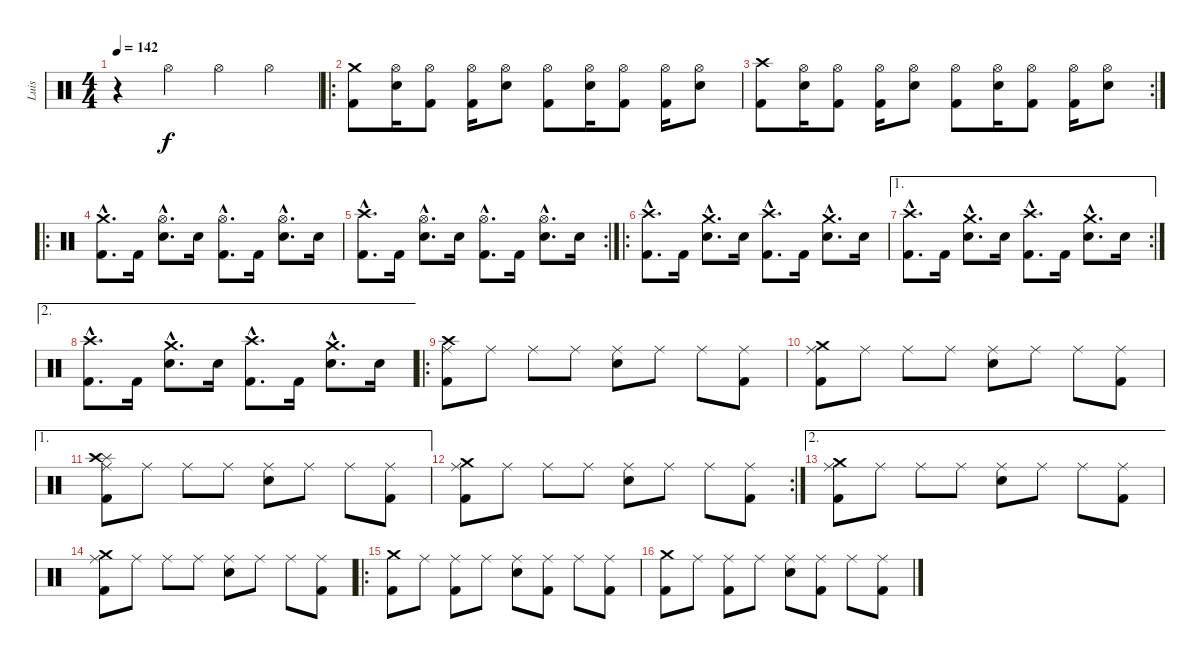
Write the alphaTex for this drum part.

\track ("Luis" "Luis") {instrument percussion}
\staff {score}
\articulation defaults
\ts (4 4)
\tempo 142
\clef neutral
\ks c
r.4{dy f} "Hi-Hat (open)".4 "Hi-Hat (open)".4 "Hi-Hat (open)".4 |
\ro
("Crash medium (hit)" "Kick (hit) 2").8 ("Hi-Hat (open)" "Electric Snare (hit)").16 ("Hi-Hat (open)" "Kick (hit) 2").8 ("Hi-Hat (open)" "Kick (hit) 2").16 ("Hi-Hat (open)" "Electric Snare (hit)").8 ("Hi-Hat (open)" "Kick (hit) 2").8 ("Hi-Hat (open)" "Electric Snare (hit)").16 ("Hi-Hat (open)" "Kick (hit) 2").8 ("Hi-Hat (open)" "Kick (hit) 2").16 ("Hi-Hat (open)" "Electric Snare (hit)").8 |
\rc 2
("Crash high (hit)" "Kick (hit) 2").8 ("Hi-Hat (open)" "Electric Snare (hit)").16 ("Hi-Hat (open)" "Kick (hit) 2").8 ("Hi-Hat (open)" "Kick (hit) 2").16 ("Hi-Hat (open)" "Electric Snare (hit)").8 ("Hi-Hat (open)" "Kick (hit) 2").8 ("Hi-Hat (open)" "Electric Snare (hit)").16 ("Hi-Hat (open)" "Kick (hit) 2").8 ("Hi-Hat (open)" "Kick (hit) 2").16 ("Hi-Hat (open)" "Electric Snare (hit)").8 |
\ro
("Crash medium (hit)"{hac} "Kick (hit) 2"{hac}).8{d} "Kick (hit) 2".16 ("Hi-Hat (open)"{hac} "Electric Snare (hit)"{hac}).8{d} "Electric Snare (hit)".16 ("Hi-Hat (open)"{hac} "Kick (hit) 2"{hac}).8{d} "Kick (hit) 2".16 ("Hi-Hat (open)"{hac} "Electric Snare (hit)"{hac}).8{d} "Electric Snare (hit)".16 |
\rc 2
("Crash high (hit)"{hac} "Kick (hit) 2"{hac}).8{d} "Kick (hit) 2".16 ("Hi-Hat (open)"{hac} "Electric Snare (hit)"{hac}).8{d} "Electric Snare (hit)".16 ("Hi-Hat (open)"{hac} "Kick (hit) 2"{hac}).8{d} "Kick (hit) 2".16 ("Hi-Hat (open)"{hac} "Electric Snare (hit)"{hac}).8{d} "Electric Snare (hit)".16 |
\ro
("Crash high (hit)"{hac} "Kick (hit) 2"{hac}).8{d} "Kick (hit) 2".16 ("Crash medium (hit)"{hac} "Electric Snare (hit)"{hac}).8{d} "Electric Snare (hit)".16 ("Crash high (hit)"{hac} "Kick (hit) 2"{hac}).8{d} "Kick (hit) 2".16 ("Crash medium (hit)"{hac} "Electric Snare (hit)"{hac}).8{d} "Electric Snare (hit)".16 |
\ae 1
\rc 2
("Crash high (hit)"{hac} "Kick (hit) 2"{hac}).8{d} "Kick (hit) 2".16 ("Crash medium (hit)"{hac} "Electric Snare (hit)"{hac}).8{d} "Electric Snare (hit)".16 ("Crash high (hit)"{hac} "Kick (hit) 2"{hac}).8{d} "Kick (hit) 2".16 ("Crash medium (hit)"{hac} "Electric Snare (hit)"{hac}).8{d} "Electric Snare (hit)".16 |
\ae 2
("Crash high (hit)"{hac} "Kick (hit) 2"{hac}).8{d} "Kick (hit) 2".16 ("Crash medium (hit)"{hac} "Electric Snare (hit)"{hac}).8{d} "Electric Snare (hit)".16 ("Crash high (hit)"{hac} "Kick (hit) 2"{hac}).8{d} "Kick (hit) 2".16 ("Crash medium (hit)"{hac} "Electric Snare (hit)"{hac}).8{d} "Electric Snare (hit)".16 |
\ro
("Crash high (hit)" "Ride (middle)" "Kick (hit) 2").8 "Ride (middle)".8 "Ride (middle)".8 "Ride (middle)".8 ("Ride (middle)" "Electric Snare (hit)").8 "Ride (middle)".8 "Ride (middle)".8 ("Ride (middle)" "Kick (hit) 2").8 |
("Crash medium (hit)" "Ride (middle)" "Kick (hit) 2").8 "Ride (middle)".8 "Ride (middle)".8 "Ride (middle)".8 ("Ride (middle)" "Electric Snare (hit)").8 "Ride (middle)".8 "Ride (middle)".8 ("Ride (middle)" "Kick (hit) 2").8 |
\ae 1
("Splash (hit)" "Crash high (hit)" "Ride (middle)" "Kick (hit) 2").8 "Ride (middle)".8 "Ride (middle)".8 "Ride (middle)".8 ("Ride (middle)" "Electric Snare (hit)").8 "Ride (middle)".8 "Ride (middle)".8 ("Ride (middle)" "Kick (hit) 2").8 |
\rc 2
("Crash medium (hit)" "Ride (middle)" "Kick (hit) 2").8 "Ride (middle)".8 "Ride (middle)".8 "Ride (middle)".8 ("Ride (middle)" "Electric Snare (hit)").8 "Ride (middle)".8 "Ride (middle)".8 ("Ride (middle)" "Kick (hit) 2").8 |
\ae 2
("Crash medium (hit)" "Ride (middle)" "Kick (hit) 2").8 "Ride (middle)".8 "Ride (middle)".8 "Ride (middle)".8 ("Ride (middle)" "Electric Snare (hit)").8 "Ride (middle)".8 "Ride (middle)".8 ("Ride (middle)" "Kick (hit) 2").8 |
("Crash medium (hit)" "Ride (middle)" "Kick (hit) 2").8 "Ride (middle)".8 "Ride (middle)".8 "Ride (middle)".8 ("Ride (middle)" "Electric Snare (hit)").8 "Ride (middle)".8 "Ride (middle)".8 ("Ride (middle)" "Kick (hit) 2").8 |
\ro
("Crash medium (hit)" "Kick (hit) 2").8 "Ride (middle)".8 ("Ride (middle)" "Kick (hit) 2").8 "Ride (middle)".8 ("Ride (middle)" "Electric Snare (hit)").8 ("Ride (middle)" "Kick (hit) 2").8 "Ride (middle)".8 ("Ride (middle)" "Kick (hit) 2").8 |
("Crash medium (hit)" "Kick (hit) 2").8 "Ride (middle)".8 ("Ride (middle)" "Kick (hit) 2").8 "Ride (middle)".8 ("Ride (middle)" "Electric Snare (hit)").8 ("Ride (middle)" "Kick (hit) 2").8 "Ride (middle)".8 ("Ride (middle)" "Kick (hit) 2").8
